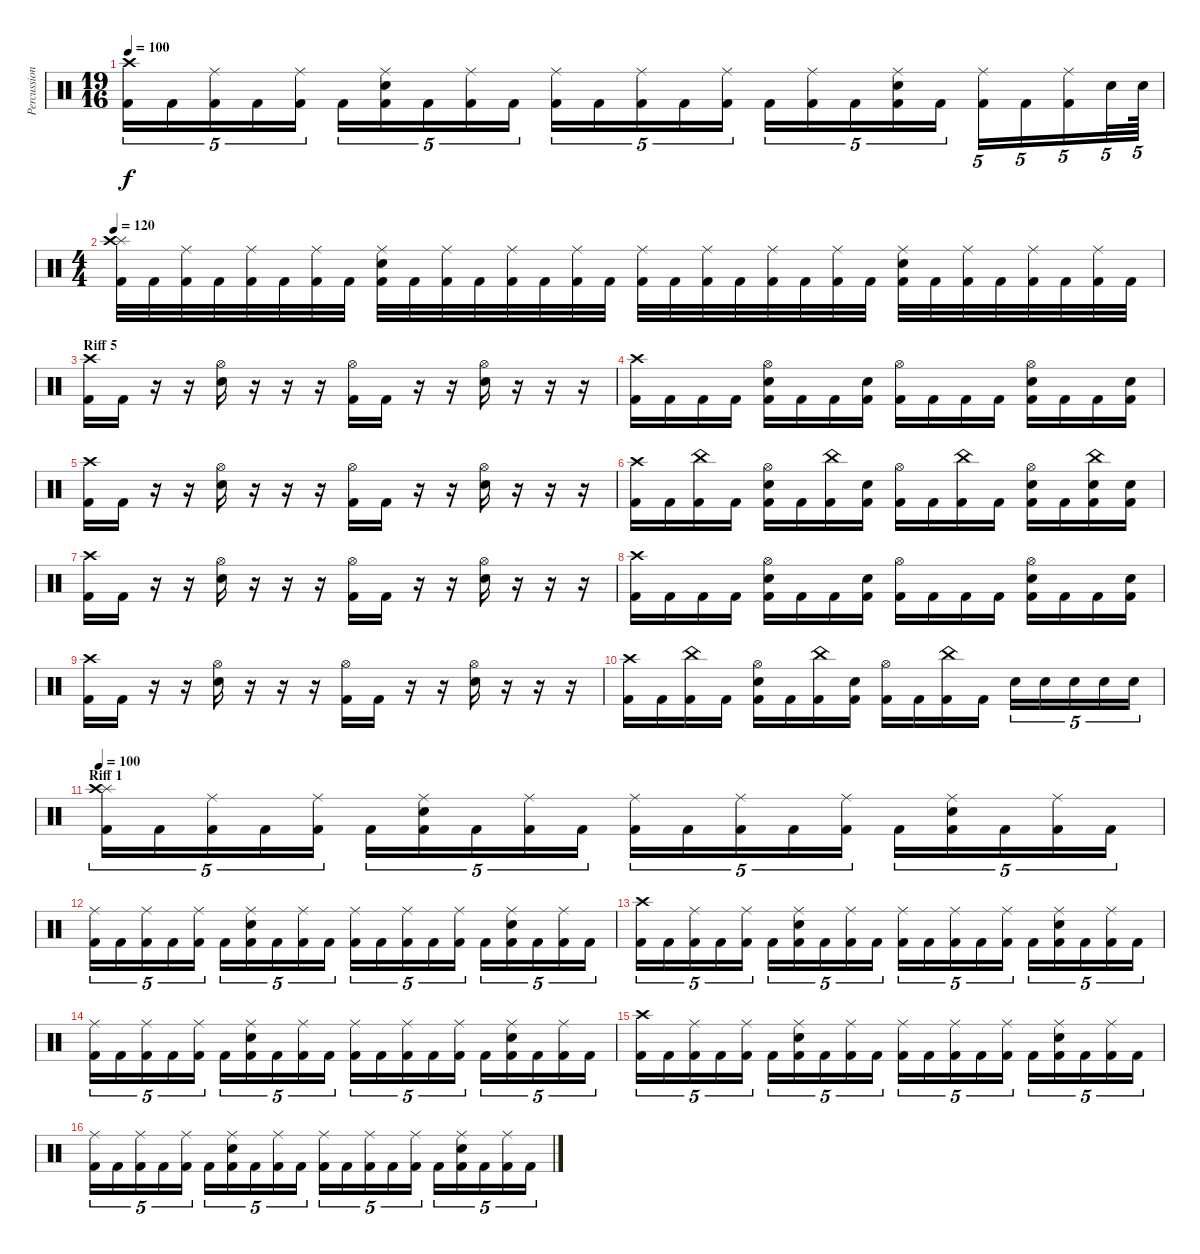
\track ("Percussion" "Percussion") {instrument percussion}
\staff {score}
\articulation defaults
\ts (19 16)
\tempo 100
\clef neutral
\ks c
("Crash high (hit)" "Kick (hit) 2").16{tu (5 4) dy f} "Kick (hit) 2".16{tu (5 4)} ("Ride (middle)" "Kick (hit) 2").16{tu (5 4)} "Kick (hit) 2".16{tu (5 4)} ("Ride (middle)" "Kick (hit) 2").16{tu (5 4)} "Kick (hit) 2".16{tu (5 4)} ("Ride (middle)" "Electric Snare (hit)" "Kick (hit) 2").16{tu (5 4)} "Kick (hit) 2".16{tu (5 4)} ("Ride (middle)" "Kick (hit) 2").16{tu (5 4)} "Kick (hit) 2".16{tu (5 4)} ("Ride (middle)" "Kick (hit) 2").16{tu (5 4)} "Kick (hit) 2".16{tu (5 4)} ("Ride (middle)" "Kick (hit) 2").16{tu (5 4)} "Kick (hit) 2".16{tu (5 4)} ("Ride (middle)" "Kick (hit) 2").16{tu (5 4)} "Kick (hit) 2".16{tu (5 4)} ("Ride (middle)" "Kick (hit) 2").16{tu (5 4)} "Kick (hit) 2".16{tu (5 4)} ("Ride (middle)" "Electric Snare (hit)" "Kick (hit) 2").16{tu (5 4)} "Kick (hit) 2".16{tu (5 4)} ("Ride (middle)" "Kick (hit) 2").16{tu (5 4)} "Kick (hit) 2".16{tu (5 4)} ("Ride (middle)" "Kick (hit) 2").16{tu (5 4)} "Electric Snare (hit)".32{tu (5 4)} "Electric Snare (hit)".64{tu (5 4)} |
\ts (4 4)
\tempo 120
("Splash (hit)" "Crash high (hit)" "Kick (hit) 2").32 "Kick (hit) 2".32 ("Ride (middle)" "Kick (hit) 2").32 "Kick (hit) 2".32 ("Ride (middle)" "Kick (hit) 2").32 "Kick (hit) 2".32 ("Ride (middle)" "Kick (hit) 2").32 "Kick (hit) 2".32 ("Ride (middle)" "Electric Snare (hit)" "Kick (hit) 2").32 "Kick (hit) 2".32 ("Ride (middle)" "Kick (hit) 2").32 "Kick (hit) 2".32 ("Ride (middle)" "Kick (hit) 2").32 "Kick (hit) 2".32 ("Ride (middle)" "Kick (hit) 2").32 "Kick (hit) 2".32 ("Ride (middle)" "Kick (hit) 2").32 "Kick (hit) 2".32 ("Ride (middle)" "Kick (hit) 2").32 "Kick (hit) 2".32 ("Ride (middle)" "Kick (hit) 2").32 "Kick (hit) 2".32 ("Ride (middle)" "Kick (hit) 2").32 "Kick (hit) 2".32 ("Ride (middle)" "Electric Snare (hit)" "Kick (hit) 2").32 "Kick (hit) 2".32 ("Ride (middle)" "Kick (hit) 2").32 "Kick (hit) 2".32 ("Ride (middle)" "Kick (hit) 2").32 "Kick (hit) 2".32 ("Ride (middle)" "Kick (hit) 2").32 "Kick (hit) 2".32 |
\section ("" "Riff 5")
("Crash high (hit)" "Kick (hit) 2").16 "Kick (hit) 2".16 r.16 r.16 ("Hi-Hat (open)" "Electric Snare (hit)").16 r.16 r.16 r.16 ("Hi-Hat (open)" "Kick (hit) 2").16 "Kick (hit) 2".16 r.16 r.16 ("Hi-Hat (open)" "Electric Snare (hit)").16 r.16 r.16 r.16 |
("Crash high (hit)" "Kick (hit) 2").16 "Kick (hit) 2".16 "Kick (hit) 2".16 "Kick (hit) 2".16 ("Hi-Hat (open)" "Electric Snare (hit)" "Kick (hit) 2").16 "Kick (hit) 2".16 "Kick (hit) 2".16 ("Electric Snare (hit)" "Kick (hit) 2").16 ("Hi-Hat (open)" "Kick (hit) 2").16 "Kick (hit) 2".16 "Kick (hit) 2".16 "Kick (hit) 2".16 ("Hi-Hat (open)" "Electric Snare (hit)" "Kick (hit) 2").16 "Kick (hit) 2".16 "Kick (hit) 2".16 ("Electric Snare (hit)" "Kick (hit) 2").16 |
("Crash high (hit)" "Kick (hit) 2").16 "Kick (hit) 2".16 r.16 r.16 ("Hi-Hat (open)" "Electric Snare (hit)").16 r.16 r.16 r.16 ("Hi-Hat (open)" "Kick (hit) 2").16 "Kick (hit) 2".16 r.16 r.16 ("Hi-Hat (open)" "Electric Snare (hit)").16 r.16 r.16 r.16 |
("Crash high (hit)" "Kick (hit) 2").16 "Kick (hit) 2".16 ("China (hit)" "Kick (hit) 2").16 "Kick (hit) 2".16 ("Hi-Hat (open)" "Electric Snare (hit)" "Kick (hit) 2").16 "Kick (hit) 2".16 ("China (hit)" "Kick (hit) 2").16 ("Electric Snare (hit)" "Kick (hit) 2").16 ("Hi-Hat (open)" "Kick (hit) 2").16 "Kick (hit) 2".16 ("China (hit)" "Kick (hit) 2").16 "Kick (hit) 2".16 ("Hi-Hat (open)" "Electric Snare (hit)" "Kick (hit) 2").16 "Kick (hit) 2".16 ("China (hit)" "Electric Snare (hit)" "Kick (hit) 2").16 ("Electric Snare (hit)" "Kick (hit) 2").16 |
("Crash high (hit)" "Kick (hit) 2").16 "Kick (hit) 2".16 r.16 r.16 ("Hi-Hat (open)" "Electric Snare (hit)").16 r.16 r.16 r.16 ("Hi-Hat (open)" "Kick (hit) 2").16 "Kick (hit) 2".16 r.16 r.16 ("Hi-Hat (open)" "Electric Snare (hit)").16 r.16 r.16 r.16 |
("Crash high (hit)" "Kick (hit) 2").16 "Kick (hit) 2".16 "Kick (hit) 2".16 "Kick (hit) 2".16 ("Hi-Hat (open)" "Electric Snare (hit)" "Kick (hit) 2").16 "Kick (hit) 2".16 "Kick (hit) 2".16 ("Electric Snare (hit)" "Kick (hit) 2").16 ("Hi-Hat (open)" "Kick (hit) 2").16 "Kick (hit) 2".16 "Kick (hit) 2".16 "Kick (hit) 2".16 ("Hi-Hat (open)" "Electric Snare (hit)" "Kick (hit) 2").16 "Kick (hit) 2".16 "Kick (hit) 2".16 ("Electric Snare (hit)" "Kick (hit) 2").16 |
("Crash high (hit)" "Kick (hit) 2").16 "Kick (hit) 2".16 r.16 r.16 ("Hi-Hat (open)" "Electric Snare (hit)").16 r.16 r.16 r.16 ("Hi-Hat (open)" "Kick (hit) 2").16 "Kick (hit) 2".16 r.16 r.16 ("Hi-Hat (open)" "Electric Snare (hit)").16 r.16 r.16 r.16 |
("Crash high (hit)" "Kick (hit) 2").16 "Kick (hit) 2".16 ("China (hit)" "Kick (hit) 2").16 "Kick (hit) 2".16 ("Hi-Hat (open)" "Electric Snare (hit)" "Kick (hit) 2").16 "Kick (hit) 2".16 ("China (hit)" "Kick (hit) 2").16 ("Electric Snare (hit)" "Kick (hit) 2").16 ("Hi-Hat (open)" "Kick (hit) 2").16 "Kick (hit) 2".16 ("China (hit)" "Kick (hit) 2").16 "Kick (hit) 2".16 "Electric Snare (hit)".16{tu (5 4)} "Electric Snare (hit)".16{tu (5 4)} "Electric Snare (hit)".16{tu (5 4)} "Electric Snare (hit)".16{tu (5 4)} "Electric Snare (hit)".16{tu (5 4)} |
\section ("" "Riff 1")
\tempo 100
("Splash (hit)" "Crash high (hit)" "Kick (hit) 2").16{tu (5 4)} "Kick (hit) 2".16{tu (5 4)} ("Ride (middle)" "Kick (hit) 2").16{tu (5 4)} "Kick (hit) 2".16{tu (5 4)} ("Ride (middle)" "Kick (hit) 2").16{tu (5 4)} "Kick (hit) 2".16{tu (5 4)} ("Ride (middle)" "Electric Snare (hit)" "Kick (hit) 2").16{tu (5 4)} "Kick (hit) 2".16{tu (5 4)} ("Ride (middle)" "Kick (hit) 2").16{tu (5 4)} "Kick (hit) 2".16{tu (5 4)} ("Ride (middle)" "Kick (hit) 2").16{tu (5 4)} "Kick (hit) 2".16{tu (5 4)} ("Ride (middle)" "Kick (hit) 2").16{tu (5 4)} "Kick (hit) 2".16{tu (5 4)} ("Ride (middle)" "Kick (hit) 2").16{tu (5 4)} "Kick (hit) 2".16{tu (5 4)} ("Ride (middle)" "Electric Snare (hit)" "Kick (hit) 2").16{tu (5 4)} "Kick (hit) 2".16{tu (5 4)} ("Ride (middle)" "Kick (hit) 2").16{tu (5 4)} "Kick (hit) 2".16{tu (5 4)} |
("Ride (middle)" "Kick (hit) 2").16{tu (5 4)} "Kick (hit) 2".16{tu (5 4)} ("Ride (middle)" "Kick (hit) 2").16{tu (5 4)} "Kick (hit) 2".16{tu (5 4)} ("Ride (middle)" "Kick (hit) 2").16{tu (5 4)} "Kick (hit) 2".16{tu (5 4)} ("Ride (middle)" "Electric Snare (hit)" "Kick (hit) 2").16{tu (5 4)} "Kick (hit) 2".16{tu (5 4)} ("Ride (middle)" "Kick (hit) 2").16{tu (5 4)} "Kick (hit) 2".16{tu (5 4)} ("Ride (middle)" "Kick (hit) 2").16{tu (5 4)} "Kick (hit) 2".16{tu (5 4)} ("Ride (middle)" "Kick (hit) 2").16{tu (5 4)} "Kick (hit) 2".16{tu (5 4)} ("Ride (middle)" "Kick (hit) 2").16{tu (5 4)} "Kick (hit) 2".16{tu (5 4)} ("Ride (middle)" "Electric Snare (hit)" "Kick (hit) 2").16{tu (5 4)} "Kick (hit) 2".16{tu (5 4)} ("Ride (middle)" "Kick (hit) 2").16{tu (5 4)} "Kick (hit) 2".16{tu (5 4)} |
("Crash high (hit)" "Kick (hit) 2").16{tu (5 4)} "Kick (hit) 2".16{tu (5 4)} ("Ride (middle)" "Kick (hit) 2").16{tu (5 4)} "Kick (hit) 2".16{tu (5 4)} ("Ride (middle)" "Kick (hit) 2").16{tu (5 4)} "Kick (hit) 2".16{tu (5 4)} ("Ride (middle)" "Electric Snare (hit)" "Kick (hit) 2").16{tu (5 4)} "Kick (hit) 2".16{tu (5 4)} ("Ride (middle)" "Kick (hit) 2").16{tu (5 4)} "Kick (hit) 2".16{tu (5 4)} ("Ride (middle)" "Kick (hit) 2").16{tu (5 4)} "Kick (hit) 2".16{tu (5 4)} ("Ride (middle)" "Kick (hit) 2").16{tu (5 4)} "Kick (hit) 2".16{tu (5 4)} ("Ride (middle)" "Kick (hit) 2").16{tu (5 4)} "Kick (hit) 2".16{tu (5 4)} ("Ride (middle)" "Electric Snare (hit)" "Kick (hit) 2").16{tu (5 4)} "Kick (hit) 2".16{tu (5 4)} ("Ride (middle)" "Kick (hit) 2").16{tu (5 4)} "Kick (hit) 2".16{tu (5 4)} |
("Ride (middle)" "Kick (hit) 2").16{tu (5 4)} "Kick (hit) 2".16{tu (5 4)} ("Ride (middle)" "Kick (hit) 2").16{tu (5 4)} "Kick (hit) 2".16{tu (5 4)} ("Ride (middle)" "Kick (hit) 2").16{tu (5 4)} "Kick (hit) 2".16{tu (5 4)} ("Ride (middle)" "Electric Snare (hit)" "Kick (hit) 2").16{tu (5 4)} "Kick (hit) 2".16{tu (5 4)} ("Ride (middle)" "Kick (hit) 2").16{tu (5 4)} "Kick (hit) 2".16{tu (5 4)} ("Ride (middle)" "Kick (hit) 2").16{tu (5 4)} "Kick (hit) 2".16{tu (5 4)} ("Ride (middle)" "Kick (hit) 2").16{tu (5 4)} "Kick (hit) 2".16{tu (5 4)} ("Ride (middle)" "Kick (hit) 2").16{tu (5 4)} "Kick (hit) 2".16{tu (5 4)} ("Ride (middle)" "Electric Snare (hit)" "Kick (hit) 2").16{tu (5 4)} "Kick (hit) 2".16{tu (5 4)} ("Ride (middle)" "Kick (hit) 2").16{tu (5 4)} "Kick (hit) 2".16{tu (5 4)} |
("Crash high (hit)" "Kick (hit) 2").16{tu (5 4)} "Kick (hit) 2".16{tu (5 4)} ("Ride (middle)" "Kick (hit) 2").16{tu (5 4)} "Kick (hit) 2".16{tu (5 4)} ("Ride (middle)" "Kick (hit) 2").16{tu (5 4)} "Kick (hit) 2".16{tu (5 4)} ("Ride (middle)" "Electric Snare (hit)" "Kick (hit) 2").16{tu (5 4)} "Kick (hit) 2".16{tu (5 4)} ("Ride (middle)" "Kick (hit) 2").16{tu (5 4)} "Kick (hit) 2".16{tu (5 4)} ("Ride (middle)" "Kick (hit) 2").16{tu (5 4)} "Kick (hit) 2".16{tu (5 4)} ("Ride (middle)" "Kick (hit) 2").16{tu (5 4)} "Kick (hit) 2".16{tu (5 4)} ("Ride (middle)" "Kick (hit) 2").16{tu (5 4)} "Kick (hit) 2".16{tu (5 4)} ("Ride (middle)" "Electric Snare (hit)" "Kick (hit) 2").16{tu (5 4)} "Kick (hit) 2".16{tu (5 4)} ("Ride (middle)" "Kick (hit) 2").16{tu (5 4)} "Kick (hit) 2".16{tu (5 4)} |
("Ride (middle)" "Kick (hit) 2").16{tu (5 4)} "Kick (hit) 2".16{tu (5 4)} ("Ride (middle)" "Kick (hit) 2").16{tu (5 4)} "Kick (hit) 2".16{tu (5 4)} ("Ride (middle)" "Kick (hit) 2").16{tu (5 4)} "Kick (hit) 2".16{tu (5 4)} ("Ride (middle)" "Electric Snare (hit)" "Kick (hit) 2").16{tu (5 4)} "Kick (hit) 2".16{tu (5 4)} ("Ride (middle)" "Kick (hit) 2").16{tu (5 4)} "Kick (hit) 2".16{tu (5 4)} ("Ride (middle)" "Kick (hit) 2").16{tu (5 4)} "Kick (hit) 2".16{tu (5 4)} ("Ride (middle)" "Kick (hit) 2").16{tu (5 4)} "Kick (hit) 2".16{tu (5 4)} ("Ride (middle)" "Kick (hit) 2").16{tu (5 4)} "Kick (hit) 2".16{tu (5 4)} ("Ride (middle)" "Electric Snare (hit)" "Kick (hit) 2").16{tu (5 4)} "Kick (hit) 2".16{tu (5 4)} ("Ride (middle)" "Kick (hit) 2").16{tu (5 4)} "Kick (hit) 2".16{tu (5 4)}
